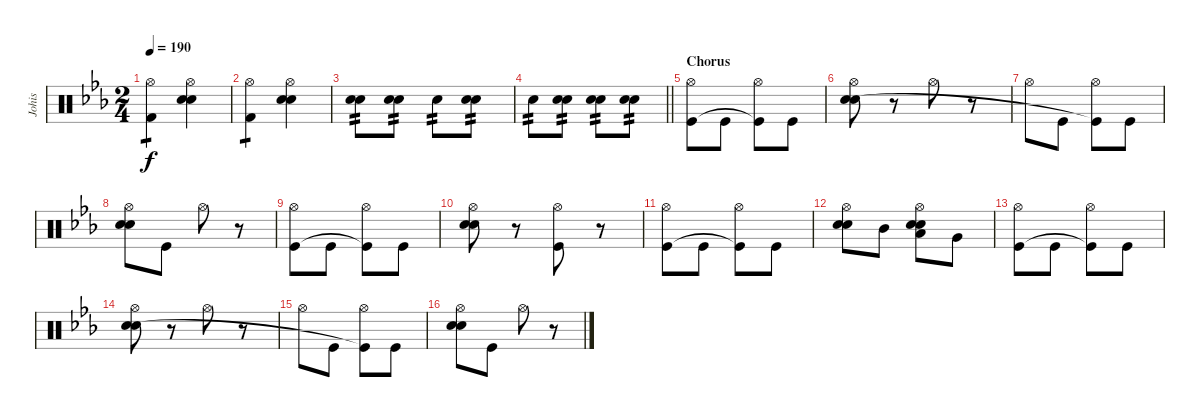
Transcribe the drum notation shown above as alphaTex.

\track ("Johis" "Johis") {instrument percussion}
\staff {score}
\articulation defaults
\ts (2 4)
\tempo 190
\clef neutral
\ks eb
("Hi-Hat (open)" "Kick (hit) 2").4{tp 1 dy f} ("Hi-Hat (open)" "Electric Snare (hit)" "Snare (hit) 2").4 |
("Hi-Hat (open)" "Kick (hit) 2").4{tp 1} ("Hi-Hat (open)" "Electric Snare (hit)" "Snare (hit) 2").4 |
("Electric Snare (hit)" "Snare (hit) 2").8{tp 2} ("Electric Snare (hit)" "Snare (hit) 2").8{tp 2} "Electric Snare (hit)".8{tp 2} ("Electric Snare (hit)" "Snare (hit) 2").8{tp 2} |
\barLineRight lightlight "Electric Snare (hit)".8{tp 2}
("Electric Snare (hit)" "Snare (hit) 2").8{tp 2} ("Electric Snare (hit)" "Snare (hit) 2").8{tp 2} ("Electric Snare (hit)" "Snare (hit) 2").8{tp 2} |
\section ("" "Chorus")
("Hi-Hat (open)" "Kick (hit)").8 "Kick (hit)".8 ("Hi-Hat (open)" "Kick (hit)"{t}).8 "Kick (hit)".8 |
("Hi-Hat (open)" "Snare (hit) 2" "Electric Snare (hit)").8 r.8 "Hi-Hat (open)".8 r.8 |
"Hi-Hat (open)".8 "Kick (hit)".8 ("Hi-Hat (open)" "Kick (hit)"{t}).8 "Kick (hit)".8 |
("Hi-Hat (open)" "Snare (hit) 2" "Electric Snare (hit)").8 "Kick (hit)".8 "Hi-Hat (open)".8 r.8 |
("Hi-Hat (open)" "Kick (hit)").8 "Kick (hit)".8 ("Hi-Hat (open)" "Kick (hit)"{t}).8 "Kick (hit)".8 |
("Hi-Hat (open)" "Snare (hit) 2" "Electric Snare (hit)").8 r.8 ("Hi-Hat (open)" "Kick (hit)").8 r.8 |
("Hi-Hat (open)" "Kick (hit)").8 "Kick (hit)".8 ("Hi-Hat (open)" "Kick (hit)"{t}).8 "Kick (hit)".8 |
("Hi-Hat (open)" "Electric Snare (hit)" "Snare (hit) 2").8 "Mid Tom (hit)".8 ("Hi-Hat (open)" "Snare (hit) 2" "Low Tom (hit)" "Electric Snare (hit)").8 "Very Low Tom (hit)".8 |
("Hi-Hat (open)" "Kick (hit)").8 "Kick (hit)".8 ("Hi-Hat (open)" "Kick (hit)"{t}).8 "Kick (hit)".8 |
("Hi-Hat (open)" "Snare (hit) 2" "Electric Snare (hit)").8 r.8 "Hi-Hat (open)".8 r.8 |
"Hi-Hat (open)".8 "Kick (hit)".8 ("Hi-Hat (open)" "Kick (hit)"{t}).8 "Kick (hit)".8 |
("Hi-Hat (open)" "Snare (hit) 2" "Electric Snare (hit)").8 "Kick (hit)".8 "Hi-Hat (open)".8 r.8
